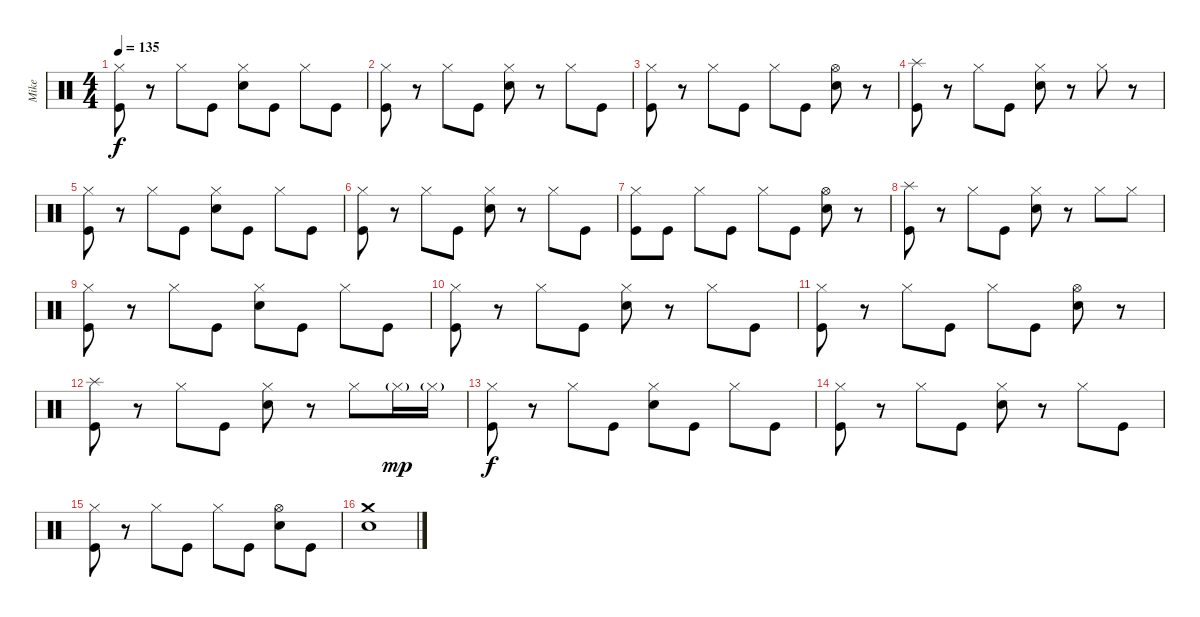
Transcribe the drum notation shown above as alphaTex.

\track ("Mike" "Mike") {instrument percussion}
\staff {score}
\articulation defaults
\ts (4 4)
\tempo 135
\clef neutral
\ks c
("Hi-Hat (closed)" "Kick (hit)").8{dy f} r.8 "Hi-Hat (closed)".8 "Kick (hit)".8 ("Hi-Hat (closed)" "Electric Snare (hit)").8 "Kick (hit)".8 "Hi-Hat (closed)".8 "Kick (hit)".8 |
("Hi-Hat (closed)" "Kick (hit)").8 r.8 "Hi-Hat (closed)".8 "Kick (hit)".8 ("Hi-Hat (closed)" "Electric Snare (hit)").8 r.8 "Hi-Hat (closed)".8 "Kick (hit)".8 |
("Hi-Hat (closed)" "Kick (hit)").8 r.8 "Hi-Hat (closed)".8 "Kick (hit)".8 "Hi-Hat (closed)".8 "Kick (hit)".8 ("Hi-Hat (open)" "Electric Snare (hit)").8 r.8 |
("Splash (hit)" "Kick (hit)").8 r.8 "Hi-Hat (closed)".8 "Kick (hit)".8 ("Hi-Hat (closed)" "Electric Snare (hit)").8 r.8 "Hi-Hat (closed)".8 r.8 |
("Hi-Hat (closed)" "Kick (hit)").8 r.8 "Hi-Hat (closed)".8 "Kick (hit)".8 ("Hi-Hat (closed)" "Electric Snare (hit)").8 "Kick (hit)".8 "Hi-Hat (closed)".8 "Kick (hit)".8 |
("Hi-Hat (closed)" "Kick (hit)").8 r.8 "Hi-Hat (closed)".8 "Kick (hit)".8 ("Hi-Hat (closed)" "Electric Snare (hit)").8 r.8 "Hi-Hat (closed)".8 "Kick (hit)".8 |
("Hi-Hat (closed)" "Kick (hit)").8 "Kick (hit)".8 "Hi-Hat (closed)".8 "Kick (hit)".8 "Hi-Hat (closed)".8 "Kick (hit)".8 ("Hi-Hat (open)" "Electric Snare (hit)").8 r.8 |
("Splash (hit)" "Kick (hit)").8 r.8 "Hi-Hat (closed)".8 "Kick (hit)".8 ("Hi-Hat (closed)" "Electric Snare (hit)").8 r.8 "Hi-Hat (closed)".8 "Hi-Hat (closed)".8 |
("Hi-Hat (closed)" "Kick (hit)").8 r.8 "Hi-Hat (closed)".8 "Kick (hit)".8 ("Hi-Hat (closed)" "Electric Snare (hit)").8 "Kick (hit)".8 "Hi-Hat (closed)".8 "Kick (hit)".8 |
("Hi-Hat (closed)" "Kick (hit)").8 r.8 "Hi-Hat (closed)".8 "Kick (hit)".8 ("Hi-Hat (closed)" "Electric Snare (hit)").8 r.8 "Hi-Hat (closed)".8 "Kick (hit)".8 |
("Hi-Hat (closed)" "Kick (hit)").8 r.8 "Hi-Hat (closed)".8 "Kick (hit)".8 "Hi-Hat (closed)".8 "Kick (hit)".8 ("Hi-Hat (open)" "Electric Snare (hit)").8 r.8 |
("Splash (hit)" "Kick (hit)").8 r.8 "Hi-Hat (closed)".8 "Kick (hit)".8 ("Hi-Hat (closed)" "Electric Snare (hit)").8 r.8 "Hi-Hat (closed)".8 "Hi-Hat (closed)"{g}.16{dy mp} "Hi-Hat (closed)"{g}.16 |
("Hi-Hat (closed)" "Kick (hit)").8{dy f} r.8 "Hi-Hat (closed)".8 "Kick (hit)".8 ("Hi-Hat (closed)" "Electric Snare (hit)").8 "Kick (hit)".8 "Hi-Hat (closed)".8 "Kick (hit)".8 |
("Hi-Hat (closed)" "Kick (hit)").8 r.8 "Hi-Hat (closed)".8 "Kick (hit)".8 ("Hi-Hat (closed)" "Electric Snare (hit)").8 r.8 "Hi-Hat (closed)".8 "Kick (hit)".8 |
("Hi-Hat (closed)" "Kick (hit)").8 r.8 "Hi-Hat (closed)".8 "Kick (hit)".8 "Hi-Hat (closed)".8 "Kick (hit)".8 ("Hi-Hat (open)" "Electric Snare (hit)").8 "Kick (hit)".8 |
("Crash medium (hit)" "Electric Snare (hit)").1
